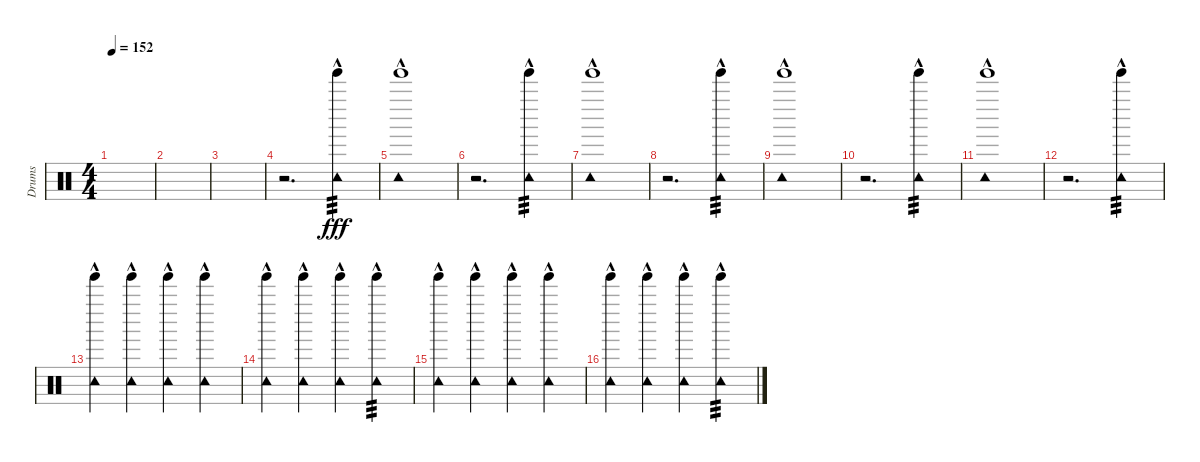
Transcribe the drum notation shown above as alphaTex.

\track ("Drums" "Drums") {instrument percussion}
\staff {score}
\articulation defaults
\ts (4 4)
\tempo 152
\clef neutral
\ks c
|
|
|
r.2{d} ("Tambourine (hit)"{hac} "Tinkle Bell (hit)").4{tp 3 dy fff} |
("Tambourine (hit)"{hac} "Tinkle Bell (hit)").1 |
r.2{d} ("Tambourine (hit)"{hac} "Tinkle Bell (hit)").4{tp 3} |
("Tambourine (hit)"{hac} "Tinkle Bell (hit)").1 |
r.2{d} ("Tambourine (hit)"{hac} "Tinkle Bell (hit)").4{tp 3} |
("Tambourine (hit)"{hac} "Tinkle Bell (hit)").1 |
r.2{d} ("Tambourine (hit)"{hac} "Tinkle Bell (hit)").4{tp 3} |
("Tambourine (hit)"{hac} "Tinkle Bell (hit)").1 |
r.2{d} ("Tambourine (hit)"{hac} "Tinkle Bell (hit)").4{tp 3} |
("Tambourine (hit)"{hac} "Tinkle Bell (hit)").4 ("Tambourine (hit)"{hac} "Tinkle Bell (hit)").4 ("Tambourine (hit)"{hac} "Tinkle Bell (hit)").4 ("Tambourine (hit)"{hac} "Tinkle Bell (hit)").4 |
("Tambourine (hit)"{hac} "Tinkle Bell (hit)").4 ("Tambourine (hit)"{hac} "Tinkle Bell (hit)").4 ("Tambourine (hit)"{hac} "Tinkle Bell (hit)").4 ("Tambourine (hit)"{hac} "Tinkle Bell (hit)").4{tp 3} |
("Tambourine (hit)"{hac} "Tinkle Bell (hit)").4 ("Tambourine (hit)"{hac} "Tinkle Bell (hit)").4 ("Tambourine (hit)"{hac} "Tinkle Bell (hit)").4 ("Tambourine (hit)"{hac} "Tinkle Bell (hit)").4 |
("Tambourine (hit)"{hac} "Tinkle Bell (hit)").4 ("Tambourine (hit)"{hac} "Tinkle Bell (hit)").4 ("Tambourine (hit)"{hac} "Tinkle Bell (hit)").4 ("Tambourine (hit)"{hac} "Tinkle Bell (hit)").4{tp 3}
